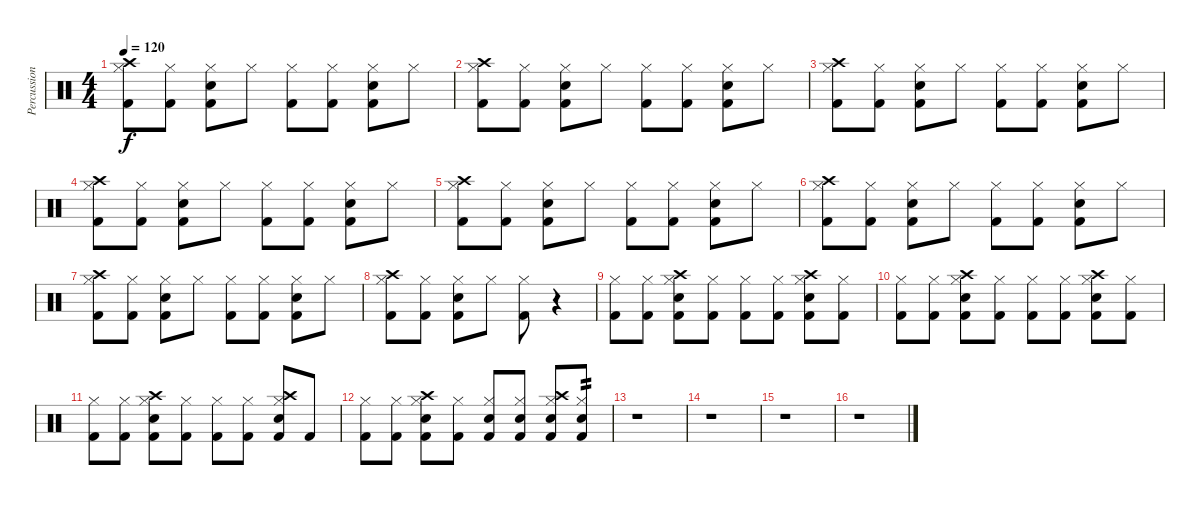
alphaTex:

\track ("Percussion" "Percussion") {instrument percussion}
\staff {score}
\articulation defaults
\ts (4 4)
\tempo 120
\clef neutral
\ks c
("Kick (hit) 2" "Hi-Hat (closed)" "Crash high (hit)").8{dy f} ("Kick (hit) 2" "Hi-Hat (closed)").8 ("Kick (hit) 2" "Snare (hit) 2" "Hi-Hat (closed)").8 "Hi-Hat (closed)".8 ("Kick (hit) 2" "Hi-Hat (closed)").8 ("Kick (hit) 2" "Hi-Hat (closed)").8 ("Kick (hit) 2" "Snare (hit) 2" "Hi-Hat (closed)").8 "Hi-Hat (closed)".8 |
("Kick (hit) 2" "Hi-Hat (closed)" "Crash high (hit)").8 ("Kick (hit) 2" "Hi-Hat (closed)").8 ("Kick (hit) 2" "Snare (hit) 2" "Hi-Hat (closed)").8 "Hi-Hat (closed)".8 ("Kick (hit) 2" "Hi-Hat (closed)").8 ("Kick (hit) 2" "Hi-Hat (closed)").8 ("Kick (hit) 2" "Snare (hit) 2" "Hi-Hat (closed)").8 "Hi-Hat (closed)".8 |
("Kick (hit) 2" "Hi-Hat (closed)" "Crash high (hit)").8 ("Kick (hit) 2" "Hi-Hat (closed)").8 ("Kick (hit) 2" "Snare (hit) 2" "Hi-Hat (closed)").8 "Hi-Hat (closed)".8 ("Kick (hit) 2" "Hi-Hat (closed)").8 ("Kick (hit) 2" "Hi-Hat (closed)").8 ("Kick (hit) 2" "Snare (hit) 2" "Hi-Hat (closed)").8 "Hi-Hat (closed)".8 |
("Kick (hit) 2" "Hi-Hat (closed)" "Crash high (hit)").8 ("Kick (hit) 2" "Hi-Hat (closed)").8 ("Kick (hit) 2" "Snare (hit) 2" "Hi-Hat (closed)").8 "Hi-Hat (closed)".8 ("Kick (hit) 2" "Hi-Hat (closed)").8 ("Kick (hit) 2" "Hi-Hat (closed)").8 ("Kick (hit) 2" "Snare (hit) 2" "Hi-Hat (closed)").8 "Hi-Hat (closed)".8 |
("Kick (hit) 2" "Hi-Hat (closed)" "Crash high (hit)").8 ("Kick (hit) 2" "Hi-Hat (closed)").8 ("Kick (hit) 2" "Snare (hit) 2" "Hi-Hat (closed)").8 "Hi-Hat (closed)".8 ("Kick (hit) 2" "Hi-Hat (closed)").8 ("Kick (hit) 2" "Hi-Hat (closed)").8 ("Kick (hit) 2" "Snare (hit) 2" "Hi-Hat (closed)").8 "Hi-Hat (closed)".8 |
("Kick (hit) 2" "Hi-Hat (closed)" "Crash high (hit)").8 ("Kick (hit) 2" "Hi-Hat (closed)").8 ("Kick (hit) 2" "Snare (hit) 2" "Hi-Hat (closed)").8 "Hi-Hat (closed)".8 ("Kick (hit) 2" "Hi-Hat (closed)").8 ("Kick (hit) 2" "Hi-Hat (closed)").8 ("Kick (hit) 2" "Snare (hit) 2" "Hi-Hat (closed)").8 "Hi-Hat (closed)".8 |
("Kick (hit) 2" "Hi-Hat (closed)" "Crash high (hit)").8 ("Kick (hit) 2" "Hi-Hat (closed)").8 ("Kick (hit) 2" "Snare (hit) 2" "Hi-Hat (closed)").8 "Hi-Hat (closed)".8 ("Kick (hit) 2" "Hi-Hat (closed)").8 ("Kick (hit) 2" "Hi-Hat (closed)").8 ("Kick (hit) 2" "Snare (hit) 2" "Hi-Hat (closed)").8 "Hi-Hat (closed)".8 |
("Kick (hit) 2" "Hi-Hat (closed)" "Crash high (hit)").8 ("Kick (hit) 2" "Hi-Hat (closed)").8 ("Kick (hit) 2" "Snare (hit) 2" "Hi-Hat (closed)").8 "Hi-Hat (closed)".8 ("Kick (hit) 2" "Hi-Hat (closed)").8 r.4 |
("Kick (hit) 2" "Hi-Hat (closed)").8 ("Kick (hit) 2" "Hi-Hat (closed)").8 ("Kick (hit) 2" "Snare (hit) 2" "Hi-Hat (closed)" "Crash high (hit)").8 ("Kick (hit) 2" "Hi-Hat (closed)").8 ("Kick (hit) 2" "Hi-Hat (closed)").8 ("Kick (hit) 2" "Hi-Hat (closed)").8 ("Kick (hit) 2" "Snare (hit) 2" "Hi-Hat (closed)" "Crash high (hit)").8 ("Kick (hit) 2" "Hi-Hat (closed)").8 |
("Kick (hit) 2" "Hi-Hat (closed)").8 ("Kick (hit) 2" "Hi-Hat (closed)").8 ("Kick (hit) 2" "Snare (hit) 2" "Hi-Hat (closed)" "Crash high (hit)").8 ("Kick (hit) 2" "Hi-Hat (closed)").8 ("Kick (hit) 2" "Hi-Hat (closed)").8 ("Kick (hit) 2" "Hi-Hat (closed)").8 ("Kick (hit) 2" "Snare (hit) 2" "Hi-Hat (closed)" "Crash high (hit)").8 ("Kick (hit) 2" "Hi-Hat (closed)").8 |
("Kick (hit) 2" "Hi-Hat (closed)").8 ("Kick (hit) 2" "Hi-Hat (closed)").8 ("Kick (hit) 2" "Snare (hit) 2" "Hi-Hat (closed)" "Crash high (hit)").8 ("Kick (hit) 2" "Hi-Hat (closed)").8 ("Kick (hit) 2" "Hi-Hat (closed)").8 ("Kick (hit) 2" "Hi-Hat (closed)").8 ("Kick (hit) 2" "Snare (hit) 2" "Hi-Hat (closed)" "Crash high (hit)").8 "Kick (hit) 2".8 |
("Kick (hit) 2" "Hi-Hat (closed)").8 ("Kick (hit) 2" "Hi-Hat (closed)").8 ("Kick (hit) 2" "Snare (hit) 2" "Hi-Hat (closed)" "Crash high (hit)").8 ("Kick (hit) 2" "Hi-Hat (closed)").8 ("Kick (hit) 2" "Snare (hit) 2" "Hi-Hat (closed)").8 ("Kick (hit) 2" "Snare (hit) 2" "Hi-Hat (closed)").8 ("Kick (hit) 2" "Snare (hit) 2" "Hi-Hat (closed)" "Crash high (hit)").8 ("Kick (hit) 2" "Snare (hit) 2" "Hi-Hat (closed)").8{tp 2} |
r.1 |
r.1 |
r.1 |
r.1
